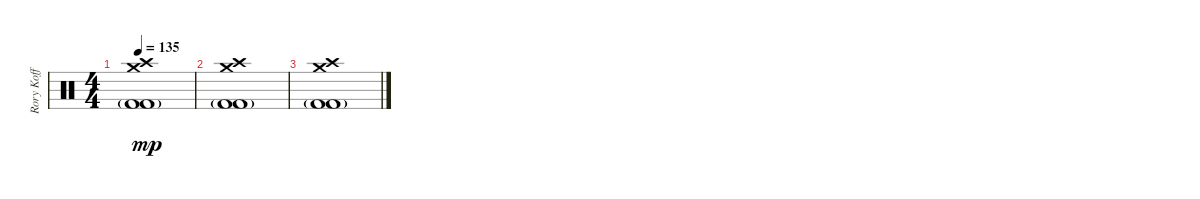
\track ("Rory Koff" "Rory Koff") {instrument percussion}
\staff {score}
\articulation defaults
\ts (4 4)
\tempo 135
\clef neutral
\ks c
("Crash medium (hit)" "Crash high (hit)" "Kick (hit) 2"{g} "Kick (hit) 2").1{dy mp} |
("Crash medium (hit)" "Crash high (hit)" "Kick (hit) 2"{g} "Kick (hit) 2").1 |
("Crash medium (hit)" "Crash high (hit)" "Kick (hit) 2"{g} "Kick (hit) 2").1
